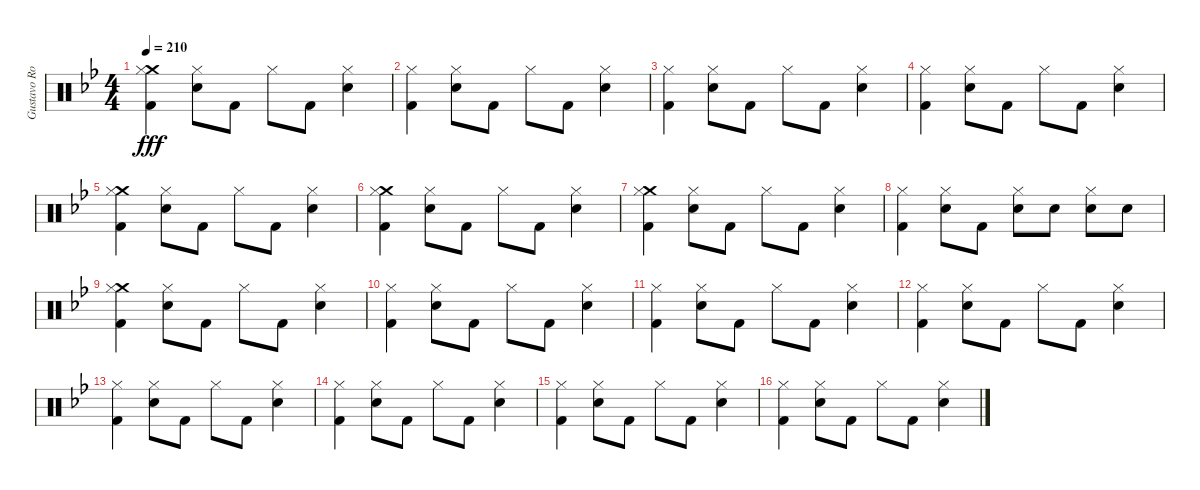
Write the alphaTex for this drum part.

\track ("Gustavo Rowek" "Gustavo Ro") {instrument percussion}
\staff {score}
\articulation defaults
\ts (4 4)
\tempo 210
\clef neutral
\ks gminor
("Crash medium (hit)" "Hi-Hat (closed)" "Kick (hit) 2").4{dy fff} ("Hi-Hat (closed)" "Snare (hit) 2").8 "Kick (hit) 2".8 "Hi-Hat (closed)".8 "Kick (hit) 2".8 ("Hi-Hat (closed)" "Snare (hit) 2").4 |
("Hi-Hat (closed)" "Kick (hit) 2").4 ("Hi-Hat (closed)" "Snare (hit) 2").8 "Kick (hit) 2".8 "Hi-Hat (closed)".8 "Kick (hit) 2".8 ("Hi-Hat (closed)" "Snare (hit) 2").4 |
("Hi-Hat (closed)" "Kick (hit) 2").4 ("Hi-Hat (closed)" "Snare (hit) 2").8 "Kick (hit) 2".8 "Hi-Hat (closed)".8 "Kick (hit) 2".8 ("Hi-Hat (closed)" "Snare (hit) 2").4 |
("Hi-Hat (closed)" "Kick (hit) 2").4 ("Hi-Hat (closed)" "Snare (hit) 2").8 "Kick (hit) 2".8 "Hi-Hat (closed)".8 "Kick (hit) 2".8 ("Hi-Hat (closed)" "Snare (hit) 2").4 |
("Crash medium (hit)" "Hi-Hat (closed)" "Kick (hit) 2").4 ("Hi-Hat (closed)" "Snare (hit) 2").8 "Kick (hit) 2".8 "Hi-Hat (closed)".8 "Kick (hit) 2".8 ("Hi-Hat (closed)" "Snare (hit) 2").4 |
("Crash medium (hit)" "Hi-Hat (closed)" "Kick (hit) 2").4 ("Hi-Hat (closed)" "Snare (hit) 2").8 "Kick (hit) 2".8 "Hi-Hat (closed)".8 "Kick (hit) 2".8 ("Hi-Hat (closed)" "Snare (hit) 2").4 |
("Crash medium (hit)" "Hi-Hat (closed)" "Kick (hit) 2").4 ("Hi-Hat (closed)" "Snare (hit) 2").8 "Kick (hit) 2".8 "Hi-Hat (closed)".8 "Kick (hit) 2".8 ("Hi-Hat (closed)" "Snare (hit) 2").4 |
("Hi-Hat (closed)" "Kick (hit) 2").4 ("Hi-Hat (closed)" "Snare (hit) 2").8 "Kick (hit) 2".8 ("Hi-Hat (closed)" "Snare (hit) 2").8 "Snare (hit) 2".8 ("Hi-Hat (closed)" "Snare (hit) 2").8 "Snare (hit) 2".8 |
("Crash medium (hit)" "Hi-Hat (closed)" "Kick (hit) 2").4 ("Hi-Hat (closed)" "Snare (hit) 2").8 "Kick (hit) 2".8 "Hi-Hat (closed)".8 "Kick (hit) 2".8 ("Hi-Hat (closed)" "Snare (hit) 2").4 |
("Hi-Hat (closed)" "Kick (hit) 2").4 ("Hi-Hat (closed)" "Snare (hit) 2").8 "Kick (hit) 2".8 "Hi-Hat (closed)".8 "Kick (hit) 2".8 ("Hi-Hat (closed)" "Snare (hit) 2").4 |
("Hi-Hat (closed)" "Kick (hit) 2").4 ("Hi-Hat (closed)" "Snare (hit) 2").8 "Kick (hit) 2".8 "Hi-Hat (closed)".8 "Kick (hit) 2".8 ("Hi-Hat (closed)" "Snare (hit) 2").4 |
("Hi-Hat (closed)" "Kick (hit) 2").4 ("Hi-Hat (closed)" "Snare (hit) 2").8 "Kick (hit) 2".8 "Hi-Hat (closed)".8 "Kick (hit) 2".8 ("Hi-Hat (closed)" "Snare (hit) 2").4 |
("Hi-Hat (closed)" "Kick (hit) 2").4 ("Hi-Hat (closed)" "Snare (hit) 2").8 "Kick (hit) 2".8 "Hi-Hat (closed)".8 "Kick (hit) 2".8 ("Hi-Hat (closed)" "Snare (hit) 2").4 |
("Hi-Hat (closed)" "Kick (hit) 2").4 ("Hi-Hat (closed)" "Snare (hit) 2").8 "Kick (hit) 2".8 "Hi-Hat (closed)".8 "Kick (hit) 2".8 ("Hi-Hat (closed)" "Snare (hit) 2").4 |
("Hi-Hat (closed)" "Kick (hit) 2").4 ("Hi-Hat (closed)" "Snare (hit) 2").8 "Kick (hit) 2".8 "Hi-Hat (closed)".8 "Kick (hit) 2".8 ("Hi-Hat (closed)" "Snare (hit) 2").4 |
("Hi-Hat (closed)" "Kick (hit) 2").4 ("Hi-Hat (closed)" "Snare (hit) 2").8 "Kick (hit) 2".8 "Hi-Hat (closed)".8 "Kick (hit) 2".8 ("Hi-Hat (closed)" "Snare (hit) 2").4
